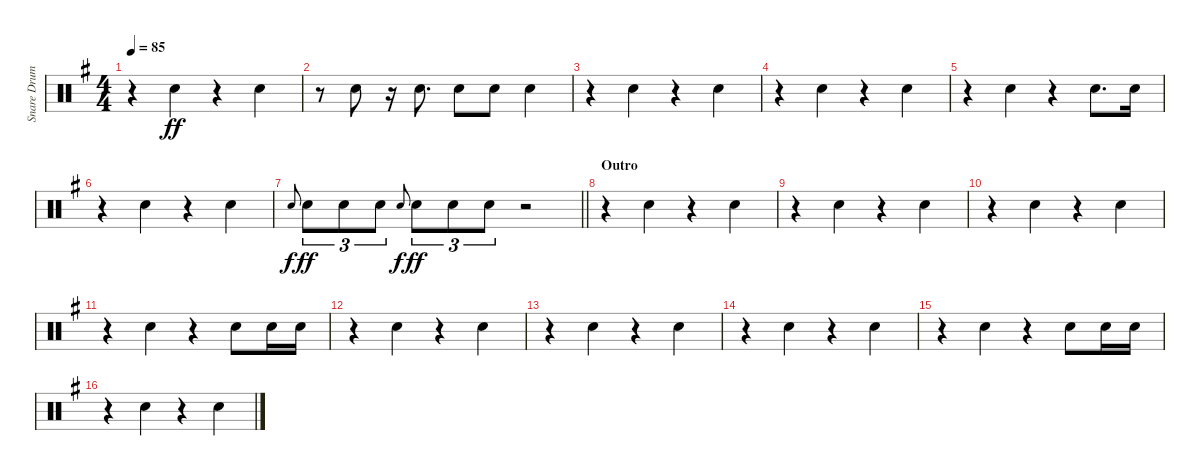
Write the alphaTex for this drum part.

\track ("Snare Drum" "Snare Drum") {instrument percussion}
\staff {score}
\articulation defaults
\ts (4 4)
\tempo 85
\clef neutral
\ks g
r.4{dy ff beam merge} "Electric Snare (hit)".4 r.4{beam merge} "Electric Snare (hit)".4 |
r.8 "Electric Snare (hit)".8 r.16 "Electric Snare (hit)".8{d} "Electric Snare (hit)".8 "Electric Snare (hit)".8 "Electric Snare (hit)".4 |
r.4{beam merge} "Electric Snare (hit)".4 r.4{beam merge} "Electric Snare (hit)".4 |
r.4{beam merge} "Electric Snare (hit)".4 r.4{beam merge} "Electric Snare (hit)".4 |
r.4{beam merge} "Electric Snare (hit)".4 r.4 "Electric Snare (hit)".8{d} "Electric Snare (hit)".16 |
r.4{beam merge} "Electric Snare (hit)".4 r.4{beam merge} "Electric Snare (hit)".4 |
\barLineRight lightlight "Electric Snare (hit)".8{gr onbeat dy f} "Electric Snare (hit)".8{tu (3 2) dy ff} "Electric Snare (hit)".8{tu (3 2)} "Electric Snare (hit)".8{tu (3 2)} "Electric Snare (hit)".8{gr onbeat dy f} "Electric Snare (hit)".8{tu (3 2) dy ff} "Electric Snare (hit)".8{tu (3 2)} "Electric Snare (hit)".8{tu (3 2)}
r.2 |
\section ("" "Outro")
r.4{beam merge} "Electric Snare (hit)".4 r.4{beam merge} "Electric Snare (hit)".4 |
r.4{beam merge} "Electric Snare (hit)".4 r.4{beam merge} "Electric Snare (hit)".4 |
r.4{beam merge} "Electric Snare (hit)".4 r.4{beam merge} "Electric Snare (hit)".4 |
r.4{beam merge} "Electric Snare (hit)".4 r.4 "Electric Snare (hit)".8 "Electric Snare (hit)".16 "Electric Snare (hit)".16 |
r.4{beam merge} "Electric Snare (hit)".4 r.4{beam merge} "Electric Snare (hit)".4 |
r.4{beam merge} "Electric Snare (hit)".4 r.4{beam merge} "Electric Snare (hit)".4 |
r.4{beam merge} "Electric Snare (hit)".4 r.4{beam merge} "Electric Snare (hit)".4 |
r.4{beam merge} "Electric Snare (hit)".4 r.4 "Electric Snare (hit)".8 "Electric Snare (hit)".16 "Electric Snare (hit)".16 |
r.4{beam merge} "Electric Snare (hit)".4 r.4{beam merge} "Electric Snare (hit)".4
